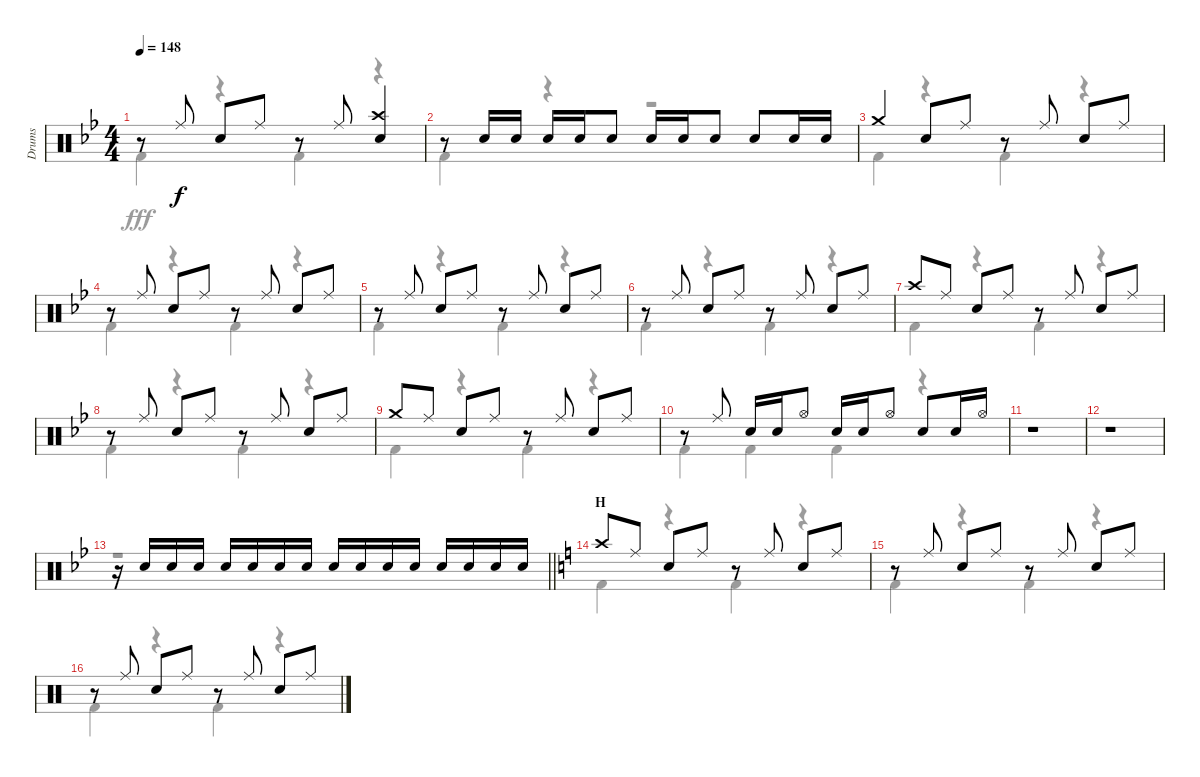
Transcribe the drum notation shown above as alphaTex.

\track ("Drums" "Drums") {instrument percussion}
\staff {score}
\articulation defaults
\voice
\ts (4 4)
\tempo 148
\clef neutral
\ks bb
r.8{dy f} "Ride (middle)".8 "Snare (hit) 2".8 "Ride (middle)".8 r.8 "Ride (middle)".8 ("Crash high (hit)" "Snare (hit) 2").4 |
r.8 "Snare (hit) 2".16 "Snare (hit) 2".16 "Snare (hit) 2".16 "Snare (hit) 2".16 "Snare (hit) 2".8 "Snare (hit) 2".16 "Snare (hit) 2".16 "Snare (hit) 2".8 "Snare (hit) 2".8 "Snare (hit) 2".16 "Snare (hit) 2".16 |
"Crash medium (hit)".4 "Snare (hit) 2".8 "Ride (middle)".8 r.8 "Ride (middle)".8 "Snare (hit) 2".8 "Ride (middle)".8 |
r.8 "Ride (middle)".8 "Snare (hit) 2".8 "Ride (middle)".8 r.8 "Ride (middle)".8 "Snare (hit) 2".8 "Ride (middle)".8 |
r.8 "Ride (middle)".8 "Snare (hit) 2".8 "Ride (middle)".8 r.8 "Ride (middle)".8 "Snare (hit) 2".8 "Ride (middle)".8 |
r.8 "Ride (middle)".8 "Snare (hit) 2".8 "Ride (middle)".8 r.8 "Ride (middle)".8 "Snare (hit) 2".8 "Ride (middle)".8 |
"Crash high (hit)".8 "Ride (middle)".8 "Snare (hit) 2".8 "Ride (middle)".8 r.8 "Ride (middle)".8 "Snare (hit) 2".8 "Ride (middle)".8 |
r.8 "Ride (middle)".8 "Snare (hit) 2".8 "Ride (middle)".8 r.8 "Ride (middle)".8 "Snare (hit) 2".8 "Ride (middle)".8 |
"Crash medium (hit)".8 "Ride (middle)".8 "Snare (hit) 2".8 "Ride (middle)".8 r.8 "Ride (middle)".8 "Snare (hit) 2".8 "Ride (middle)".8 |
r.8 "Ride (middle)".8 "Snare (hit) 2".16 "Snare (hit) 2".16 "Hi-Hat (open)".8 "Snare (hit) 2".16 "Snare (hit) 2".16 "Hi-Hat (open)".8 "Snare (hit) 2".8 "Snare (hit) 2".16 "Hi-Hat (open)".16 |
r.1 |
r.1 |
\barLineRight lightlight
r.16 "Snare (hit) 2".16 "Snare (hit) 2".16 "Snare (hit) 2".16 "Snare (hit) 2".16 "Snare (hit) 2".16 "Snare (hit) 2".16 "Snare (hit) 2".16 "Snare (hit) 2".16 "Snare (hit) 2".16 "Snare (hit) 2".16 "Snare (hit) 2".16 "Snare (hit) 2".16 "Snare (hit) 2".16 "Snare (hit) 2".16 "Snare (hit) 2".16 |
\section ("" "H")
\ks c "Crash high (hit)".8 "Ride (middle)".8 "Snare (hit) 2".8 "Ride (middle)".8
r.8 "Ride (middle)".8 "Snare (hit) 2".8 "Ride (middle)".8 |
r.8 "Ride (middle)".8 "Snare (hit) 2".8 "Ride (middle)".8 r.8 "Ride (middle)".8 "Snare (hit) 2".8 "Ride (middle)".8 |
r.8 "Ride (middle)".8 "Snare (hit) 2".8 "Ride (middle)".8 r.8 "Ride (middle)".8 "Snare (hit) 2".8 "Ride (middle)".8
\voice
\clef neutral
\ottava regular
\simile none
\ks bb "Kick (hit) 2".4{dy fff}
r.4 "Kick (hit) 2".4 r.4 |
"Kick (hit) 2".4 r.4 r.2 |
"Kick (hit) 2".4 r.4 "Kick (hit) 2".4 r.4 |
"Kick (hit) 2".4 r.4 "Kick (hit) 2".4 r.4 |
"Kick (hit) 2".4 r.4 "Kick (hit) 2".4 r.4 |
"Kick (hit) 2".4 r.4 "Kick (hit) 2".4 r.4 |
"Kick (hit) 2".4 r.4 "Kick (hit) 2".4 r.4 |
"Kick (hit) 2".4 r.4 "Kick (hit) 2".4 r.4 |
"Kick (hit) 2".4 r.4 "Kick (hit) 2".4 r.4 |
"Kick (hit) 2".4 "Kick (hit) 2".4 "Kick (hit) 2".4 r.4 |
r.1 |
r.1 |
\barLineRight lightlight
r.1 |
\ks c "Kick (hit) 2".4
r.4 "Kick (hit) 2".4 r.4 |
"Kick (hit) 2".4 r.4 "Kick (hit) 2".4 r.4 |
"Kick (hit) 2".4 r.4 "Kick (hit) 2".4 r.4
